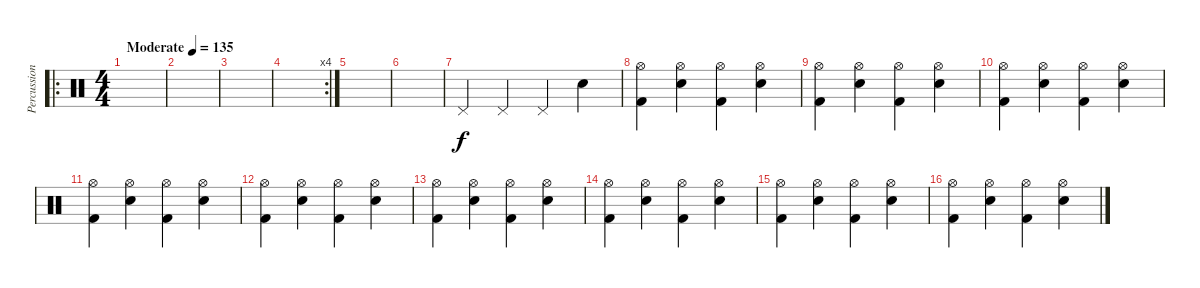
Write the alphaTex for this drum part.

\track ("Percussion" "Percussion") {instrument percussion}
\staff {score}
\articulation defaults
\ro
\ts (4 4)
\tempo (135 "Moderate")
\clef neutral
\ks c
|
|
|
\rc 4
|
|
|
"Pedal Hi-Hat (hit)".4 "Pedal Hi-Hat (hit)".4 "Pedal Hi-Hat (hit)".4 "Electric Snare (hit)".4 |
("Hi-Hat (open)" "Kick (hit) 2").4 ("Hi-Hat (open)" "Electric Snare (hit)").4 ("Hi-Hat (open)" "Kick (hit) 2").4 ("Hi-Hat (open)" "Electric Snare (hit)").4 |
("Hi-Hat (open)" "Kick (hit) 2").4 ("Hi-Hat (open)" "Electric Snare (hit)").4 ("Hi-Hat (open)" "Kick (hit) 2").4 ("Hi-Hat (open)" "Electric Snare (hit)").4 |
("Hi-Hat (open)" "Kick (hit) 2").4 ("Hi-Hat (open)" "Electric Snare (hit)").4 ("Hi-Hat (open)" "Kick (hit) 2").4 ("Hi-Hat (open)" "Electric Snare (hit)").4 |
("Hi-Hat (open)" "Kick (hit) 2").4 ("Hi-Hat (open)" "Electric Snare (hit)").4 ("Hi-Hat (open)" "Kick (hit) 2").4 ("Hi-Hat (open)" "Electric Snare (hit)").4 |
("Hi-Hat (open)" "Kick (hit) 2").4 ("Hi-Hat (open)" "Electric Snare (hit)").4 ("Hi-Hat (open)" "Kick (hit) 2").4 ("Hi-Hat (open)" "Electric Snare (hit)").4 |
("Hi-Hat (open)" "Kick (hit) 2").4 ("Hi-Hat (open)" "Electric Snare (hit)").4 ("Hi-Hat (open)" "Kick (hit) 2").4 ("Hi-Hat (open)" "Electric Snare (hit)").4 |
("Hi-Hat (open)" "Kick (hit) 2").4 ("Hi-Hat (open)" "Electric Snare (hit)").4 ("Hi-Hat (open)" "Kick (hit) 2").4 ("Hi-Hat (open)" "Electric Snare (hit)").4 |
("Hi-Hat (open)" "Kick (hit) 2").4 ("Hi-Hat (open)" "Electric Snare (hit)").4 ("Hi-Hat (open)" "Kick (hit) 2").4 ("Hi-Hat (open)" "Electric Snare (hit)").4 |
("Hi-Hat (open)" "Kick (hit) 2").4 ("Hi-Hat (open)" "Electric Snare (hit)").4 ("Hi-Hat (open)" "Kick (hit) 2").4 ("Hi-Hat (open)" "Electric Snare (hit)").4
